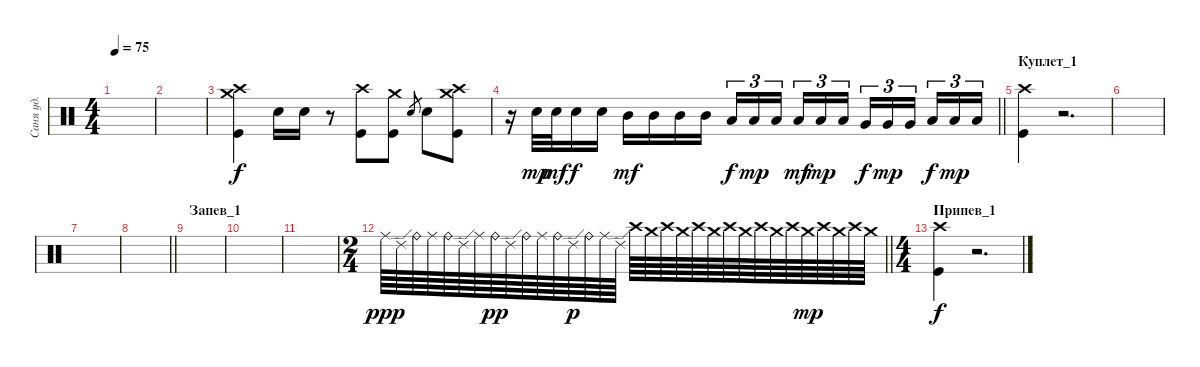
\track ("Саня уд." "Саня уд.") {instrument percussion}
\staff {score}
\articulation defaults
\ts (4 4)
\tempo 75
\clef neutral
\ks c
|
|
("Crash high (hit)" "Crash medium (hit)" "Kick (hit)").4 "Snare (hit) 2".16 "Snare (hit) 2".16 r.8 ("Crash high (hit)" "Kick (hit)").8 ("Crash medium (hit)" "Kick (hit)").8 "Snare (hit) 2".8{gr} "Snare (hit) 2".8 ("Crash medium (hit)" "Crash high (hit)" "Kick (hit)").8 |
\barLineRight lightlight
r.16 "Snare (hit) 2".32{dy mp} "Snare (hit) 2".32{dy mf} "Snare (hit) 2".16{dy f} "Snare (hit) 2".16 "Mid Tom (hit)".16{dy mf} "Mid Tom (hit)".16 "Mid Tom (hit)".16 "Mid Tom (hit)".16 "Low Tom (hit)".16{tu (3 2) dy f} "Low Tom (hit)".16{tu (3 2) dy mp} "Low Tom (hit)".16{tu (3 2) beam splitsecondary} "Low Tom (hit)".16{tu (3 2) dy mf} "Low Tom (hit)".16{tu (3 2) dy mp} "Low Tom (hit)".16{tu (3 2)} "Very Low Tom (hit)".16{tu (3 2) dy f} "Very Low Tom (hit)".16{tu (3 2) dy mp} "Very Low Tom (hit)".16{tu (3 2) beam splitsecondary} "Low Floor Tom (hit)".16{tu (3 2) dy f} "Low Floor Tom (hit)".16{tu (3 2) dy mp} "Low Floor Tom (hit)".16{tu (3 2)} |
\section ("" "Куплет_1")
("Kick (hit)" "Crash high (hit)").4 r.2{d} |
|
|
\barLineRight lightlight
|
\section ("" "Запев_1")
|
|
|
\ts (2 4)
\barLineRight lightlight "Ride (middle)".64{dy ppp} "Ride (edge) 2".64 "Ride (bell)".64 "Ride (middle)".64 "Ride (bell)".64 "Ride (edge) 2".64 "Ride (middle)".64 "Ride (bell)".64{dy pp} "Ride (edge) 2".64 "Ride (bell)".64 "Ride (middle)".64 "Ride (bell)".64 "Ride (edge) 2".64{dy p} "Ride (bell)".64 "Ride (middle)".64 "Ride (edge) 2".64 "Crash high (hit)".64 "Crash medium (hit)".64 "Crash high (hit)".64 "Crash medium (hit)".64 "Crash high (hit)".64 "Crash medium (hit)".64 "Crash high (hit)".64 "Crash medium (hit)".64 "Crash high (hit)".64 "Crash medium (hit)".64 "Crash high (hit)".64 "Crash medium (hit)".64{dy mp} "Crash high (hit)".64 "Crash medium (hit)".64 "Crash high (hit)".64 "Crash medium (hit)".64
|
\ts (4 4)
\section ("" "Припев_1")
("Crash high (hit)" "Kick (hit)").4{dy f} r.2{d}
